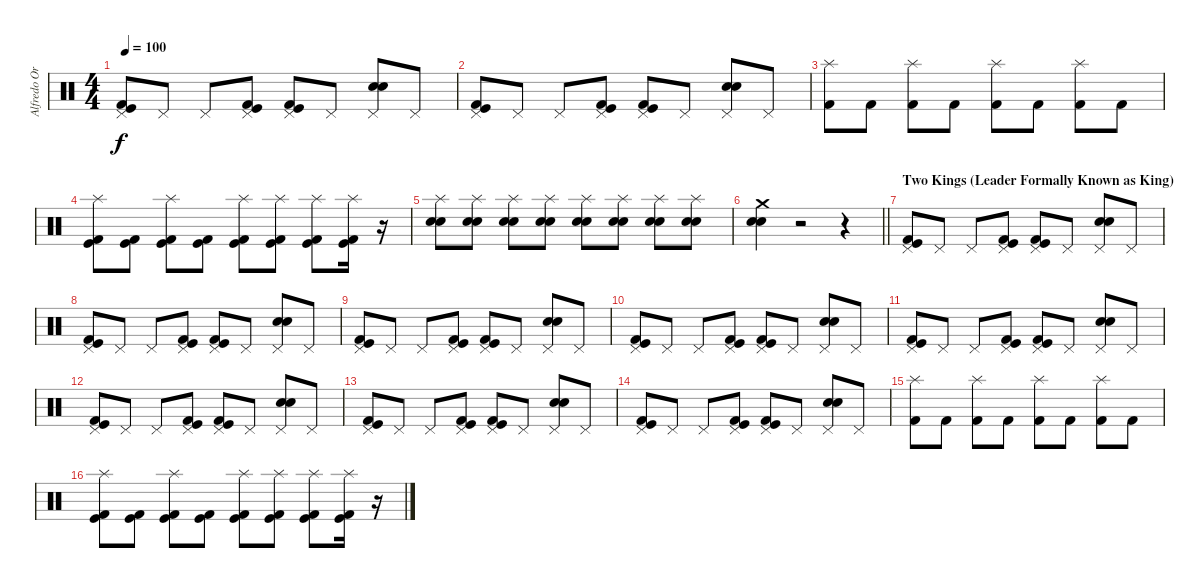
\track ("Alfredo Ortiz (Drums)" "Alfredo Or") {instrument percussion}
\staff {score}
\articulation defaults
\ts (4 4)
\tempo 100
\clef neutral
\ks c
("Kick (hit) 2" "Kick (hit)" "Pedal Hi-Hat (hit)").8{dy f} "Pedal Hi-Hat (hit)".8 "Pedal Hi-Hat (hit)".8 ("Kick (hit) 2" "Kick (hit)" "Pedal Hi-Hat (hit)").8 ("Kick (hit) 2" "Kick (hit)" "Pedal Hi-Hat (hit)").8 "Pedal Hi-Hat (hit)".8 ("Snare (hit) 2" "Electric Snare (hit)" "Pedal Hi-Hat (hit)").8 "Pedal Hi-Hat (hit)".8 |
("Kick (hit) 2" "Kick (hit)" "Pedal Hi-Hat (hit)").8 "Pedal Hi-Hat (hit)".8 "Pedal Hi-Hat (hit)".8 ("Kick (hit) 2" "Kick (hit)" "Pedal Hi-Hat (hit)").8 ("Kick (hit) 2" "Kick (hit)" "Pedal Hi-Hat (hit)").8 "Pedal Hi-Hat (hit)".8 ("Snare (hit) 2" "Electric Snare (hit)" "Pedal Hi-Hat (hit)").8 "Pedal Hi-Hat (hit)".8 |
("Kick (hit) 2" "Splash (hit)").8 "Kick (hit) 2".8 ("Kick (hit) 2" "Splash (hit)").8 "Kick (hit) 2".8 ("Kick (hit) 2" "Splash (hit)").8 "Kick (hit) 2".8 ("Kick (hit) 2" "Splash (hit)").8 "Kick (hit) 2".8 |
("Kick (hit) 2" "Kick (hit)" "Splash (hit)").8 ("Kick (hit) 2" "Kick (hit)").8 ("Kick (hit) 2" "Kick (hit)" "Splash (hit)").8 ("Kick (hit) 2" "Kick (hit)").8 ("Kick (hit) 2" "Kick (hit)" "Splash (hit)").8 ("Kick (hit) 2" "Kick (hit)" "Splash (hit)").8 ("Kick (hit) 2" "Kick (hit)" "Splash (hit)").8 ("Kick (hit) 2" "Kick (hit)" "Splash (hit)").16 r.16{volume 8} |
("Snare (hit) 2" "Electric Snare (hit)" "Splash (hit)").8{volume 11} ("Snare (hit) 2" "Electric Snare (hit)" "Splash (hit)").8 ("Snare (hit) 2" "Electric Snare (hit)" "Splash (hit)").8 ("Snare (hit) 2" "Electric Snare (hit)" "Splash (hit)").8 ("Snare (hit) 2" "Electric Snare (hit)" "Splash (hit)").8 ("Snare (hit) 2" "Electric Snare (hit)" "Splash (hit)").8 ("Snare (hit) 2" "Electric Snare (hit)" "Splash (hit)").8 ("Snare (hit) 2" "Electric Snare (hit)" "Splash (hit)").8 |
\barLineRight lightlight
("Snare (hit) 2" "Electric Snare (hit)" "Crash medium (hit)").4 r.2 r.4 |
\section ("" "Two Kings (Leader Formally Known as King)")
("Kick (hit) 2" "Kick (hit)" "Pedal Hi-Hat (hit)").8 "Pedal Hi-Hat (hit)".8 "Pedal Hi-Hat (hit)".8 ("Kick (hit) 2" "Kick (hit)" "Pedal Hi-Hat (hit)").8 ("Kick (hit) 2" "Kick (hit)" "Pedal Hi-Hat (hit)").8 "Pedal Hi-Hat (hit)".8 ("Snare (hit) 2" "Electric Snare (hit)" "Pedal Hi-Hat (hit)").8 "Pedal Hi-Hat (hit)".8 |
("Kick (hit) 2" "Kick (hit)" "Pedal Hi-Hat (hit)").8 "Pedal Hi-Hat (hit)".8 "Pedal Hi-Hat (hit)".8 ("Kick (hit) 2" "Kick (hit)" "Pedal Hi-Hat (hit)").8 ("Kick (hit) 2" "Kick (hit)" "Pedal Hi-Hat (hit)").8 "Pedal Hi-Hat (hit)".8 ("Snare (hit) 2" "Electric Snare (hit)" "Pedal Hi-Hat (hit)").8 "Pedal Hi-Hat (hit)".8 |
("Kick (hit) 2" "Kick (hit)" "Pedal Hi-Hat (hit)").8 "Pedal Hi-Hat (hit)".8 "Pedal Hi-Hat (hit)".8 ("Kick (hit) 2" "Kick (hit)" "Pedal Hi-Hat (hit)").8 ("Kick (hit) 2" "Kick (hit)" "Pedal Hi-Hat (hit)").8 "Pedal Hi-Hat (hit)".8 ("Snare (hit) 2" "Electric Snare (hit)" "Pedal Hi-Hat (hit)").8 "Pedal Hi-Hat (hit)".8 |
("Kick (hit) 2" "Kick (hit)" "Pedal Hi-Hat (hit)").8 "Pedal Hi-Hat (hit)".8 "Pedal Hi-Hat (hit)".8 ("Kick (hit) 2" "Kick (hit)" "Pedal Hi-Hat (hit)").8 ("Kick (hit) 2" "Kick (hit)" "Pedal Hi-Hat (hit)").8 "Pedal Hi-Hat (hit)".8 ("Snare (hit) 2" "Electric Snare (hit)" "Pedal Hi-Hat (hit)").8 "Pedal Hi-Hat (hit)".8 |
("Kick (hit) 2" "Kick (hit)" "Pedal Hi-Hat (hit)").8 "Pedal Hi-Hat (hit)".8 "Pedal Hi-Hat (hit)".8 ("Kick (hit) 2" "Kick (hit)" "Pedal Hi-Hat (hit)").8 ("Kick (hit) 2" "Kick (hit)" "Pedal Hi-Hat (hit)").8 "Pedal Hi-Hat (hit)".8 ("Snare (hit) 2" "Electric Snare (hit)" "Pedal Hi-Hat (hit)").8 "Pedal Hi-Hat (hit)".8 |
("Kick (hit) 2" "Kick (hit)" "Pedal Hi-Hat (hit)").8 "Pedal Hi-Hat (hit)".8 "Pedal Hi-Hat (hit)".8 ("Kick (hit) 2" "Kick (hit)" "Pedal Hi-Hat (hit)").8 ("Kick (hit) 2" "Kick (hit)" "Pedal Hi-Hat (hit)").8 "Pedal Hi-Hat (hit)".8 ("Snare (hit) 2" "Electric Snare (hit)" "Pedal Hi-Hat (hit)").8 "Pedal Hi-Hat (hit)".8 |
("Kick (hit) 2" "Kick (hit)" "Pedal Hi-Hat (hit)").8 "Pedal Hi-Hat (hit)".8 "Pedal Hi-Hat (hit)".8 ("Kick (hit) 2" "Kick (hit)" "Pedal Hi-Hat (hit)").8 ("Kick (hit) 2" "Kick (hit)" "Pedal Hi-Hat (hit)").8 "Pedal Hi-Hat (hit)".8 ("Snare (hit) 2" "Electric Snare (hit)" "Pedal Hi-Hat (hit)").8 "Pedal Hi-Hat (hit)".8 |
("Kick (hit) 2" "Kick (hit)" "Pedal Hi-Hat (hit)").8 "Pedal Hi-Hat (hit)".8 "Pedal Hi-Hat (hit)".8 ("Kick (hit) 2" "Kick (hit)" "Pedal Hi-Hat (hit)").8 ("Kick (hit) 2" "Kick (hit)" "Pedal Hi-Hat (hit)").8 "Pedal Hi-Hat (hit)".8 ("Snare (hit) 2" "Electric Snare (hit)" "Pedal Hi-Hat (hit)").8 "Pedal Hi-Hat (hit)".8 |
("Kick (hit) 2" "Splash (hit)").8 "Kick (hit) 2".8 ("Kick (hit) 2" "Splash (hit)").8 "Kick (hit) 2".8 ("Kick (hit) 2" "Splash (hit)").8 "Kick (hit) 2".8 ("Kick (hit) 2" "Splash (hit)").8 "Kick (hit) 2".8 |
("Kick (hit) 2" "Kick (hit)" "Splash (hit)").8 ("Kick (hit) 2" "Kick (hit)").8 ("Kick (hit) 2" "Kick (hit)" "Splash (hit)").8 ("Kick (hit) 2" "Kick (hit)").8 ("Kick (hit) 2" "Kick (hit)" "Splash (hit)").8 ("Kick (hit) 2" "Kick (hit)" "Splash (hit)").8 ("Kick (hit) 2" "Kick (hit)" "Splash (hit)").8 ("Kick (hit) 2" "Kick (hit)" "Splash (hit)").16 r.16{volume 8}
